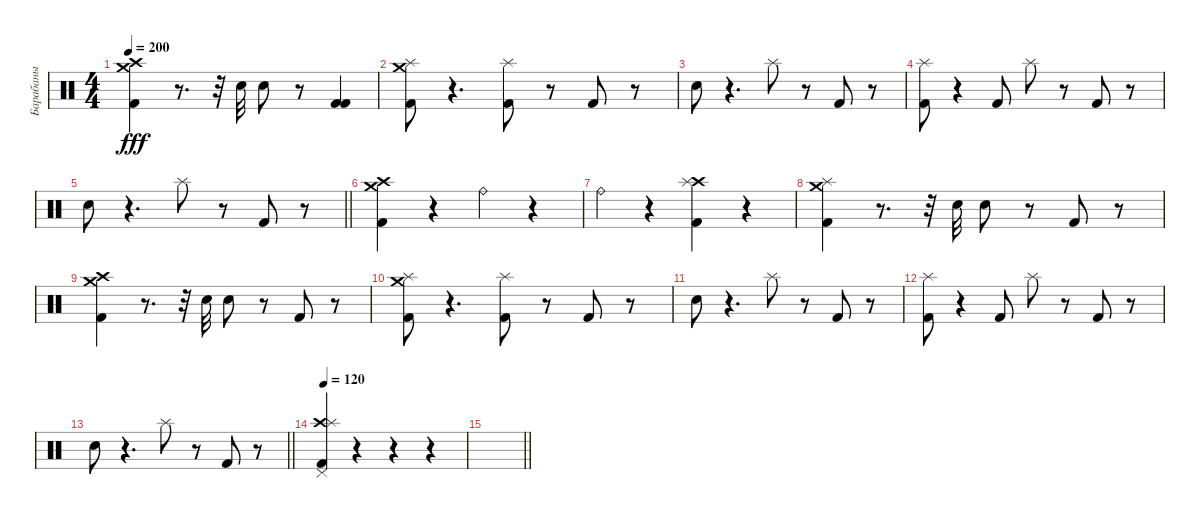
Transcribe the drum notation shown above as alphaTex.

\track ("Барабаны" "Барабаны") {instrument percussion}
\staff {score}
\articulation defaults
\ts (4 4)
\tempo 200
\clef neutral
\ks c
("Kick (hit) 2" "Crash high (hit)" "Crash medium (hit)").4{dy fff} r.8{d} r.32 "Snare (hit) 2".32 "Snare (hit) 2".8 r.8 ("Kick (hit) 2" "Kick (hit) 2").4 |
("Kick (hit) 2" "Splash (hit)" "Crash medium (hit)").8 r.4{d} ("Kick (hit) 2" "Splash (hit)").8 r.8 "Kick (hit) 2".8 r.8 |
"Snare (hit) 2".8 r.4{d} "Splash (hit)".8 r.8 "Kick (hit) 2".8 r.8 |
("Kick (hit) 2" "Splash (hit)").8 r.4 "Kick (hit) 2".8 "Splash (hit)".8 r.8 "Kick (hit) 2".8 r.8 |
\barLineRight lightlight "Snare (hit) 2".8
r.4{d} "Splash (hit)".8 r.8 "Kick (hit) 2".8 r.8 |
("Kick (hit) 2" "Crash high (hit)" "Crash medium (hit)").4 r.4 "Ride (bell)".4 r.4 |
"Ride (bell)".4 r.4 ("Kick (hit) 2" "Crash high (hit)" "Splash (hit)").4 r.4 |
("Kick (hit) 2" "Splash (hit)" "Crash medium (hit)").4 r.8{d} r.32 "Snare (hit) 2".32 "Snare (hit) 2".8 r.8 "Kick (hit) 2".8 r.8 |
("Kick (hit) 2" "Crash high (hit)" "Crash medium (hit)").4 r.8{d} r.32 "Snare (hit) 2".32 "Snare (hit) 2".8 r.8 "Kick (hit) 2".8 r.8 |
("Kick (hit) 2" "Splash (hit)" "Crash medium (hit)").8 r.4{d} ("Kick (hit) 2" "Splash (hit)").8 r.8 "Kick (hit) 2".8 r.8 |
"Snare (hit) 2".8 r.4{d} "Splash (hit)".8 r.8 "Kick (hit) 2".8 r.8 |
("Kick (hit) 2" "Splash (hit)").8 r.4 "Kick (hit) 2".8 "Splash (hit)".8 r.8 "Kick (hit) 2".8 r.8 |
\barLineRight lightlight "Snare (hit) 2".8
r.4{d} "Splash (hit)".8 r.8 "Kick (hit) 2".8 r.8 |
\section ("" " ")
\tempo 120
("Kick (hit) 2" "Pedal Hi-Hat (hit)" "Crash high (hit)" "Splash (hit)").4 r.4 r.4 r.4 |
\barLineRight lightlight
